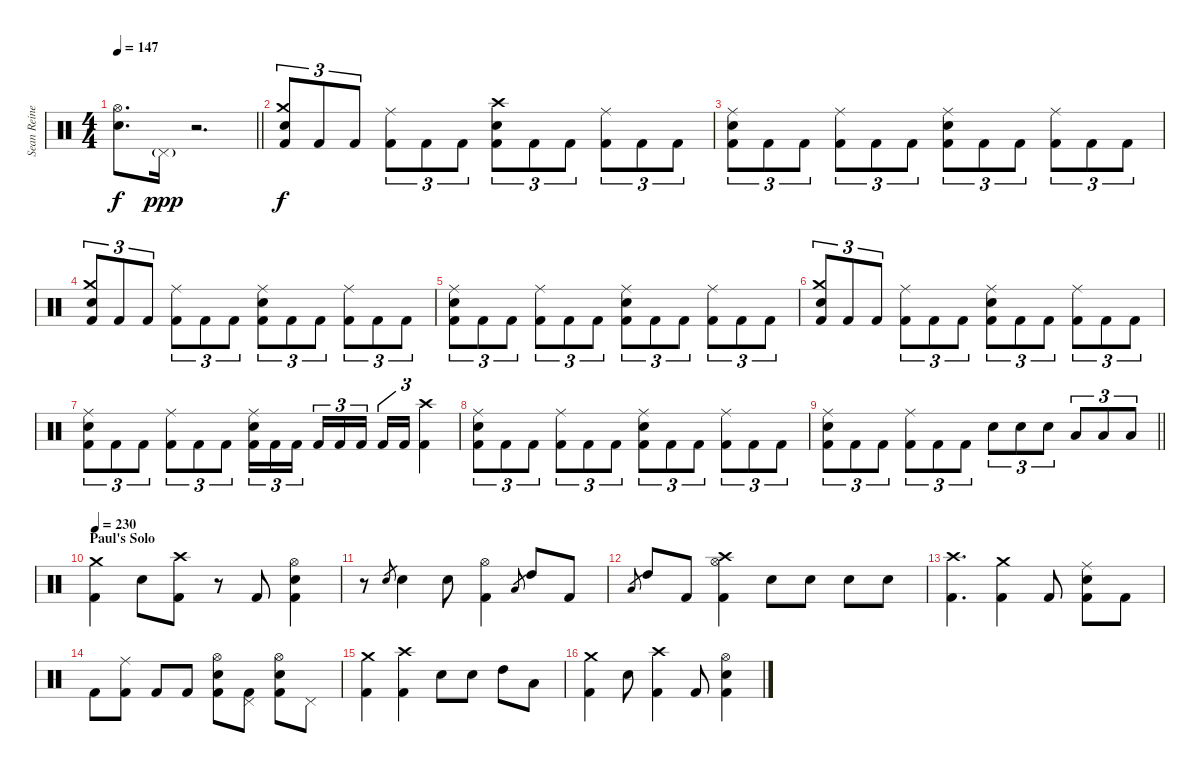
\track ("Sean Reinert" "Sean Reine") {instrument percussion}
\staff {score}
\articulation defaults
\ts (4 4)
\tempo 147
\clef neutral
\barLineRight lightlight
\ks c
("Hi-Hat (open)" "Snare (hit) 2").8{d dy f} "Pedal Hi-Hat (hit)"{g}.16{dy ppp} r.2{d} |
("Crash medium (hit)" "Snare (hit) 2" "Kick (hit) 2").8{tu (3 2) dy f} "Kick (hit) 2".8{tu (3 2)} "Kick (hit) 2".8{tu (3 2)} ("Ride (middle)" "Kick (hit) 2").8{tu (3 2)} "Kick (hit) 2".8{tu (3 2)} "Kick (hit) 2".8{tu (3 2)} ("Crash high (hit)" "Snare (hit) 2" "Kick (hit) 2").8{tu (3 2)} "Kick (hit) 2".8{tu (3 2)} "Kick (hit) 2".8{tu (3 2)} ("Ride (middle)" "Kick (hit) 2").8{tu (3 2)} "Kick (hit) 2".8{tu (3 2)} "Kick (hit) 2".8{tu (3 2)} |
("Ride (middle)" "Snare (hit) 2" "Kick (hit) 2").8{tu (3 2)} "Kick (hit) 2".8{tu (3 2)} "Kick (hit) 2".8{tu (3 2)} ("Ride (middle)" "Kick (hit) 2").8{tu (3 2)} "Kick (hit) 2".8{tu (3 2)} "Kick (hit) 2".8{tu (3 2)} ("Ride (middle)" "Snare (hit) 2" "Kick (hit) 2").8{tu (3 2)} "Kick (hit) 2".8{tu (3 2)} "Kick (hit) 2".8{tu (3 2)} ("Ride (middle)" "Kick (hit) 2").8{tu (3 2)} "Kick (hit) 2".8{tu (3 2)} "Kick (hit) 2".8{tu (3 2)} |
("Crash medium (hit)" "Snare (hit) 2" "Kick (hit) 2").8{tu (3 2)} "Kick (hit) 2".8{tu (3 2)} "Kick (hit) 2".8{tu (3 2)} ("Ride (middle)" "Kick (hit) 2").8{tu (3 2)} "Kick (hit) 2".8{tu (3 2)} "Kick (hit) 2".8{tu (3 2)} ("Ride (middle)" "Snare (hit) 2" "Kick (hit) 2").8{tu (3 2)} "Kick (hit) 2".8{tu (3 2)} "Kick (hit) 2".8{tu (3 2)} ("Ride (middle)" "Kick (hit) 2").8{tu (3 2)} "Kick (hit) 2".8{tu (3 2)} "Kick (hit) 2".8{tu (3 2)} |
("Ride (middle)" "Snare (hit) 2" "Kick (hit) 2").8{tu (3 2)} "Kick (hit) 2".8{tu (3 2)} "Kick (hit) 2".8{tu (3 2)} ("Ride (middle)" "Kick (hit) 2").8{tu (3 2)} "Kick (hit) 2".8{tu (3 2)} "Kick (hit) 2".8{tu (3 2)} ("Ride (middle)" "Snare (hit) 2" "Kick (hit) 2").8{tu (3 2)} "Kick (hit) 2".8{tu (3 2)} "Kick (hit) 2".8{tu (3 2)} ("Ride (middle)" "Kick (hit) 2").8{tu (3 2)} "Kick (hit) 2".8{tu (3 2)} "Kick (hit) 2".8{tu (3 2)} |
("Crash medium (hit)" "Snare (hit) 2" "Kick (hit) 2").8{tu (3 2)} "Kick (hit) 2".8{tu (3 2)} "Kick (hit) 2".8{tu (3 2)} ("Ride (middle)" "Kick (hit) 2").8{tu (3 2)} "Kick (hit) 2".8{tu (3 2)} "Kick (hit) 2".8{tu (3 2)} ("Ride (middle)" "Snare (hit) 2" "Kick (hit) 2").8{tu (3 2)} "Kick (hit) 2".8{tu (3 2)} "Kick (hit) 2".8{tu (3 2)} ("Ride (middle)" "Kick (hit) 2").8{tu (3 2)} "Kick (hit) 2".8{tu (3 2)} "Kick (hit) 2".8{tu (3 2)} |
("Ride (middle)" "Snare (hit) 2" "Kick (hit) 2").8{tu (3 2)} "Kick (hit) 2".8{tu (3 2)} "Kick (hit) 2".8{tu (3 2)} ("Ride (middle)" "Kick (hit) 2").8{tu (3 2)} "Kick (hit) 2".8{tu (3 2)} "Kick (hit) 2".8{tu (3 2)} ("Ride (middle)" "Snare (hit) 2" "Kick (hit) 2").16{tu (3 2)} "Kick (hit) 2".16{tu (3 2)} "Kick (hit) 2".16{tu (3 2) beam splitsecondary} "Kick (hit) 2".16{tu (3 2)} "Kick (hit) 2".16{tu (3 2)} "Kick (hit) 2".16{tu (3 2)} "Kick (hit) 2".16{tu (3 2)} "Kick (hit) 2".16{tu (3 2)} ("Crash high (hit)" "Kick (hit) 2").4{tu (3 2)} |
("Ride (middle)" "Snare (hit) 2" "Kick (hit) 2").8{tu (3 2)} "Kick (hit) 2".8{tu (3 2)} "Kick (hit) 2".8{tu (3 2)} ("Ride (middle)" "Kick (hit) 2").8{tu (3 2)} "Kick (hit) 2".8{tu (3 2)} "Kick (hit) 2".8{tu (3 2)} ("Ride (middle)" "Snare (hit) 2" "Kick (hit) 2").8{tu (3 2)} "Kick (hit) 2".8{tu (3 2)} "Kick (hit) 2".8{tu (3 2)} ("Ride (middle)" "Kick (hit) 2").8{tu (3 2)} "Kick (hit) 2".8{tu (3 2)} "Kick (hit) 2".8{tu (3 2)} |
\barLineRight lightlight
("Ride (middle)" "Snare (hit) 2" "Kick (hit) 2").8{tu (3 2)} "Kick (hit) 2".8{tu (3 2)} "Kick (hit) 2".8{tu (3 2)} ("Ride (middle)" "Kick (hit) 2").8{tu (3 2)} "Kick (hit) 2".8{tu (3 2)} "Kick (hit) 2".8{tu (3 2)} "Snare (hit) 2".8{tu (3 2)} "Snare (hit) 2".8{tu (3 2)} "Snare (hit) 2".8{tu (3 2)} "Low Tom (hit)".8{tu (3 2)} "Low Tom (hit)".8{tu (3 2)} "Low Tom (hit)".8{tu (3 2)} |
\section ("" "Paul's Solo")
\tempo 230
("Crash medium (hit)" "Kick (hit) 2").4 "Snare (hit) 2".8 ("Crash high (hit)" "Kick (hit) 2").8 r.8 "Kick (hit) 2".8 ("Hi-Hat (open)" "Snare (hit) 2" "Kick (hit) 2").4 |
r.8 "Snare (hit) 2".8{gr} "Snare (hit) 2".4 "Snare (hit) 2".8 ("Hi-Hat (open)" "Kick (hit) 2").4 "Low Floor Tom (hit)".8{gr} "High Tom (hit)".8 "Kick (hit) 2".8 |
"Low Floor Tom (hit)".8{gr} "High Tom (hit)".8 "Kick (hit) 2".8 ("Hi-Hat (open)" "Crash high (hit)" "Kick (hit) 2").4 "Snare (hit) 2".8 "Snare (hit) 2".8 "Snare (hit) 2".8 "Snare (hit) 2".8 |
("Crash high (hit)" "Kick (hit) 2").4{d} ("Crash medium (hit)" "Kick (hit) 2").4 "Kick (hit) 2".8 ("Ride (middle)" "Snare (hit) 2" "Kick (hit) 2").8 "Kick (hit) 2".8 |
"Kick (hit) 2".8 ("Ride (middle)" "Kick (hit) 2").8 "Kick (hit) 2".8 "Kick (hit) 2".8 ("Hi-Hat (open)" "Snare (hit) 2" "Kick (hit) 2").8 ("Pedal Hi-Hat (hit)" "Kick (hit) 2").8 ("Hi-Hat (open)" "Snare (hit) 2" "Kick (hit) 2").8 "Pedal Hi-Hat (hit)".8 |
("Crash medium (hit)" "Kick (hit) 2").4 ("Crash high (hit)" "Kick (hit) 2").4 "Snare (hit) 2".8 "Snare (hit) 2".8 "High Tom (hit)".8 "Low Tom (hit)".8 |
("Crash medium (hit)" "Kick (hit) 2").4 "Snare (hit) 2".8 ("Crash high (hit)" "Kick (hit) 2").4 "Kick (hit) 2".8 ("Hi-Hat (open)" "Snare (hit) 2" "Kick (hit) 2").4
